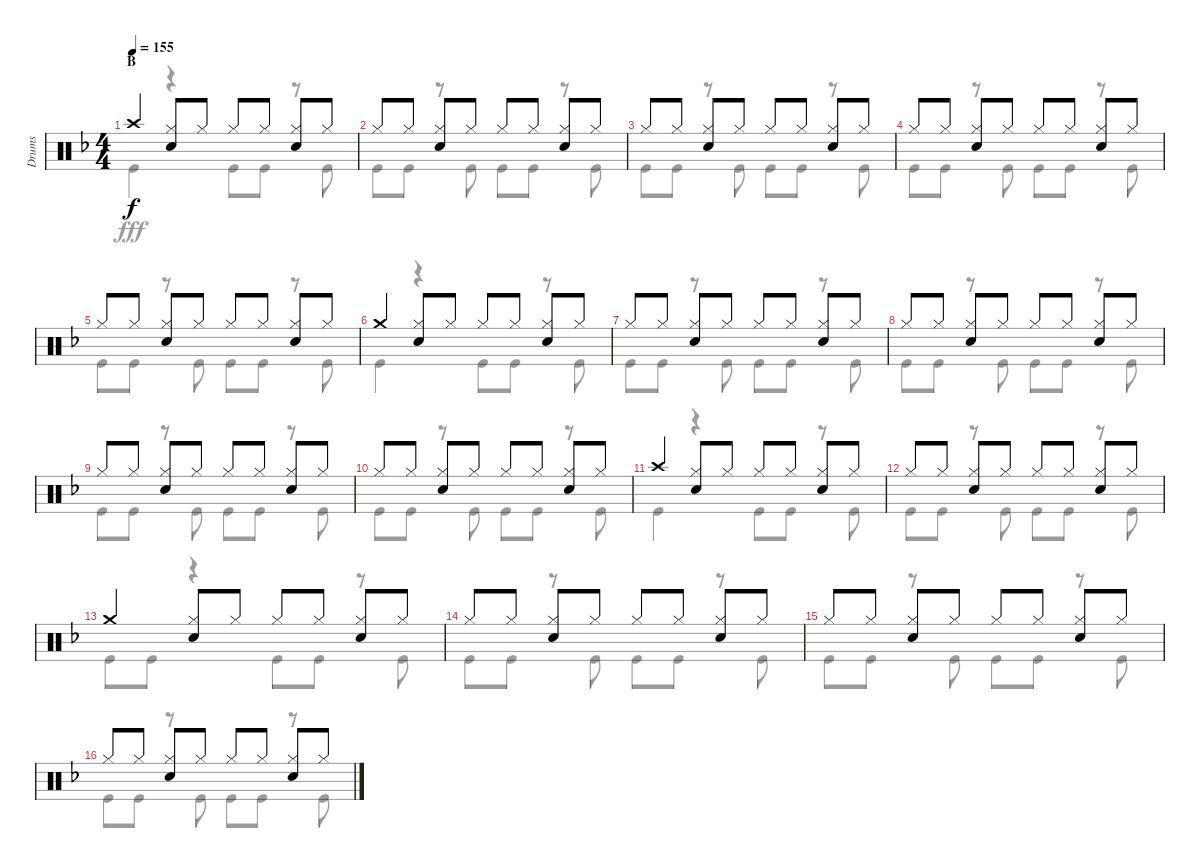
\track ("Drums" "Drums") {instrument percussion}
\staff {score}
\articulation defaults
\voice
\ts (4 4)
\section ("" "B")
\tempo 155
\clef neutral
\ks f "Crash high (hit)".4{dy f}
("Hi-Hat (closed)" "Snare (hit) 2").8 "Hi-Hat (closed)".8 "Hi-Hat (closed)".8 "Hi-Hat (closed)".8 ("Hi-Hat (closed)" "Snare (hit) 2").8 "Hi-Hat (closed)".8 |
"Hi-Hat (closed)".8 "Hi-Hat (closed)".8 ("Hi-Hat (closed)" "Snare (hit) 2").8 "Hi-Hat (closed)".8 "Hi-Hat (closed)".8 "Hi-Hat (closed)".8 ("Hi-Hat (closed)" "Snare (hit) 2").8 "Hi-Hat (closed)".8 |
"Hi-Hat (closed)".8 "Hi-Hat (closed)".8 ("Hi-Hat (closed)" "Snare (hit) 2").8 "Hi-Hat (closed)".8 "Hi-Hat (closed)".8 "Hi-Hat (closed)".8 ("Hi-Hat (closed)" "Snare (hit) 2").8 "Hi-Hat (closed)".8 |
"Hi-Hat (closed)".8 "Hi-Hat (closed)".8 ("Hi-Hat (closed)" "Snare (hit) 2").8 "Hi-Hat (closed)".8 "Hi-Hat (closed)".8 "Hi-Hat (closed)".8 ("Hi-Hat (closed)" "Snare (hit) 2").8 "Hi-Hat (closed)".8 |
"Hi-Hat (closed)".8 "Hi-Hat (closed)".8 ("Hi-Hat (closed)" "Snare (hit) 2").8 "Hi-Hat (closed)".8 "Hi-Hat (closed)".8 "Hi-Hat (closed)".8 ("Hi-Hat (closed)" "Snare (hit) 2").8 "Hi-Hat (closed)".8 |
"Crash medium (hit)".4 ("Hi-Hat (closed)" "Snare (hit) 2").8 "Hi-Hat (closed)".8 "Hi-Hat (closed)".8 "Hi-Hat (closed)".8 ("Hi-Hat (closed)" "Snare (hit) 2").8 "Hi-Hat (closed)".8 |
"Hi-Hat (closed)".8 "Hi-Hat (closed)".8 ("Hi-Hat (closed)" "Snare (hit) 2").8 "Hi-Hat (closed)".8 "Hi-Hat (closed)".8 "Hi-Hat (closed)".8 ("Hi-Hat (closed)" "Snare (hit) 2").8 "Hi-Hat (closed)".8 |
"Hi-Hat (closed)".8 "Hi-Hat (closed)".8 ("Hi-Hat (closed)" "Snare (hit) 2").8 "Hi-Hat (closed)".8 "Hi-Hat (closed)".8 "Hi-Hat (closed)".8 ("Hi-Hat (closed)" "Snare (hit) 2").8 "Hi-Hat (closed)".8 |
"Hi-Hat (closed)".8 "Hi-Hat (closed)".8 ("Hi-Hat (closed)" "Snare (hit) 2").8 "Hi-Hat (closed)".8 "Hi-Hat (closed)".8 "Hi-Hat (closed)".8 ("Hi-Hat (closed)" "Snare (hit) 2").8 "Hi-Hat (closed)".8 |
"Hi-Hat (closed)".8 "Hi-Hat (closed)".8 ("Hi-Hat (closed)" "Snare (hit) 2").8 "Hi-Hat (closed)".8 "Hi-Hat (closed)".8 "Hi-Hat (closed)".8 ("Hi-Hat (closed)" "Snare (hit) 2").8 "Hi-Hat (closed)".8 |
"Crash high (hit)".4 ("Hi-Hat (closed)" "Snare (hit) 2").8 "Hi-Hat (closed)".8 "Hi-Hat (closed)".8 "Hi-Hat (closed)".8 ("Hi-Hat (closed)" "Snare (hit) 2").8 "Hi-Hat (closed)".8 |
"Hi-Hat (closed)".8 "Hi-Hat (closed)".8 ("Hi-Hat (closed)" "Snare (hit) 2").8 "Hi-Hat (closed)".8 "Hi-Hat (closed)".8 "Hi-Hat (closed)".8 ("Hi-Hat (closed)" "Snare (hit) 2").8 "Hi-Hat (closed)".8 |
"Crash medium (hit)".4 ("Hi-Hat (closed)" "Snare (hit) 2").8 "Hi-Hat (closed)".8 "Hi-Hat (closed)".8 "Hi-Hat (closed)".8 ("Hi-Hat (closed)" "Snare (hit) 2").8 "Hi-Hat (closed)".8 |
"Hi-Hat (closed)".8 "Hi-Hat (closed)".8 ("Hi-Hat (closed)" "Snare (hit) 2").8 "Hi-Hat (closed)".8 "Hi-Hat (closed)".8 "Hi-Hat (closed)".8 ("Hi-Hat (closed)" "Snare (hit) 2").8 "Hi-Hat (closed)".8 |
"Hi-Hat (closed)".8 "Hi-Hat (closed)".8 ("Hi-Hat (closed)" "Snare (hit) 2").8 "Hi-Hat (closed)".8 "Hi-Hat (closed)".8 "Hi-Hat (closed)".8 ("Hi-Hat (closed)" "Snare (hit) 2").8 "Hi-Hat (closed)".8 |
"Hi-Hat (closed)".8 "Hi-Hat (closed)".8 ("Hi-Hat (closed)" "Snare (hit) 2").8 "Hi-Hat (closed)".8 "Hi-Hat (closed)".8 "Hi-Hat (closed)".8 ("Hi-Hat (closed)" "Snare (hit) 2").8 "Hi-Hat (closed)".8
\voice
\clef neutral
\ottava regular
\simile none
\ks f "Kick (hit)".4{dy fff}
r.4 "Kick (hit)".8 "Kick (hit)".8 r.8 "Kick (hit)".8 |
"Kick (hit)".8 "Kick (hit)".8 r.8 "Kick (hit)".8 "Kick (hit)".8 "Kick (hit)".8 r.8 "Kick (hit)".8 |
"Kick (hit)".8 "Kick (hit)".8 r.8 "Kick (hit)".8 "Kick (hit)".8 "Kick (hit)".8 r.8 "Kick (hit)".8 |
"Kick (hit)".8 "Kick (hit)".8 r.8 "Kick (hit)".8 "Kick (hit)".8 "Kick (hit)".8 r.8 "Kick (hit)".8 |
"Kick (hit)".8 "Kick (hit)".8 r.8 "Kick (hit)".8 "Kick (hit)".8 "Kick (hit)".8 r.8 "Kick (hit)".8 |
"Kick (hit)".4 r.4 "Kick (hit)".8 "Kick (hit)".8 r.8 "Kick (hit)".8 |
"Kick (hit)".8 "Kick (hit)".8 r.8 "Kick (hit)".8 "Kick (hit)".8 "Kick (hit)".8 r.8 "Kick (hit)".8 |
"Kick (hit)".8 "Kick (hit)".8 r.8 "Kick (hit)".8 "Kick (hit)".8 "Kick (hit)".8 r.8 "Kick (hit)".8 |
"Kick (hit)".8 "Kick (hit)".8 r.8 "Kick (hit)".8 "Kick (hit)".8 "Kick (hit)".8 r.8 "Kick (hit)".8 |
"Kick (hit)".8 "Kick (hit)".8 r.8 "Kick (hit)".8 "Kick (hit)".8 "Kick (hit)".8 r.8 "Kick (hit)".8 |
"Kick (hit)".4 r.4 "Kick (hit)".8 "Kick (hit)".8 r.8 "Kick (hit)".8 |
"Kick (hit)".8 "Kick (hit)".8 r.8 "Kick (hit)".8 "Kick (hit)".8 "Kick (hit)".8 r.8 "Kick (hit)".8 |
"Kick (hit)".8 "Kick (hit)".8 r.4 "Kick (hit)".8 "Kick (hit)".8 r.8 "Kick (hit)".8 |
"Kick (hit)".8 "Kick (hit)".8 r.8 "Kick (hit)".8 "Kick (hit)".8 "Kick (hit)".8 r.8 "Kick (hit)".8 |
"Kick (hit)".8 "Kick (hit)".8 r.8 "Kick (hit)".8 "Kick (hit)".8 "Kick (hit)".8 r.8 "Kick (hit)".8 |
"Kick (hit)".8 "Kick (hit)".8 r.8 "Kick (hit)".8 "Kick (hit)".8 "Kick (hit)".8 r.8 "Kick (hit)".8
